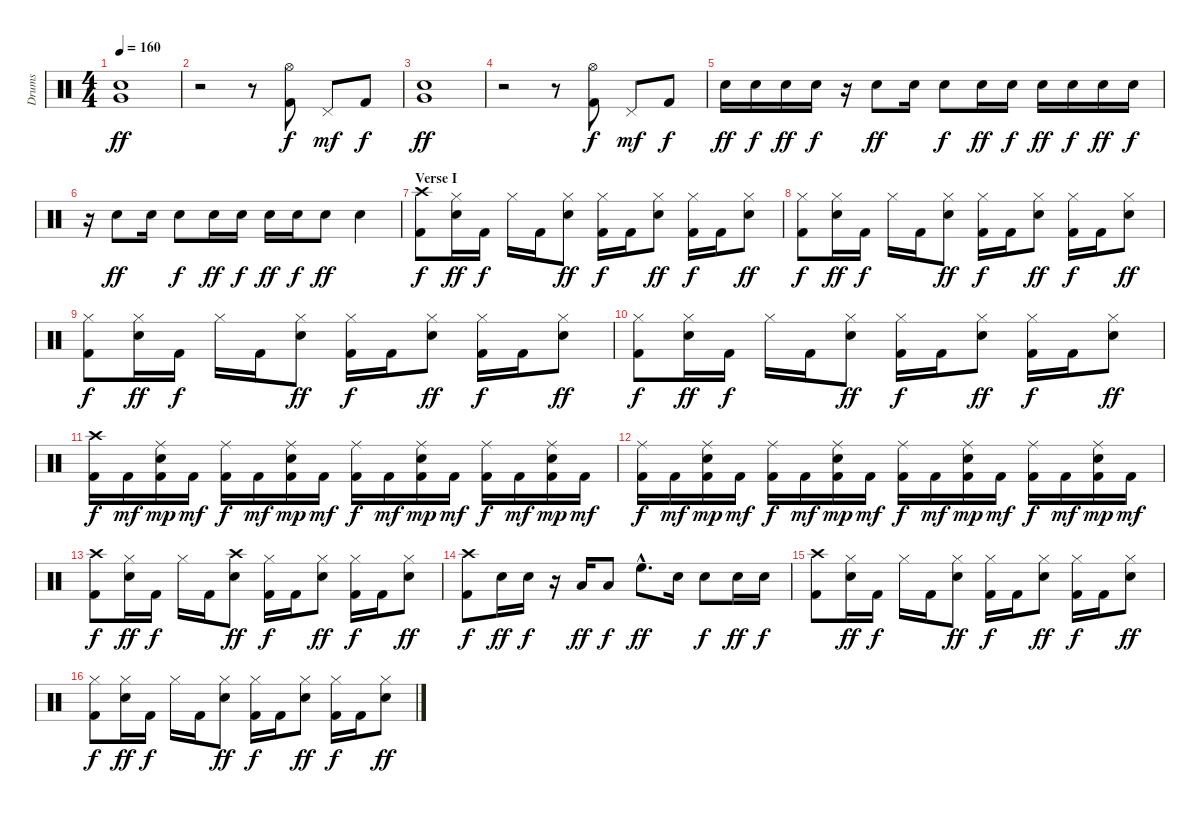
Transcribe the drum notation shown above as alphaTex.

\track ("Drums" "Drums") {instrument percussion}
\staff {score}
\articulation defaults
\ts (4 4)
\tempo 160
\clef neutral
\ks c
("Very Low Tom (hit)" "Snare (hit) 2").1{dy ff} |
r.2 r.8 ("Hi-Hat (open)" "Kick (hit) 2").8{dy f} "Pedal Hi-Hat (hit)".8{dy mf} "Kick (hit) 2".8{dy f} |
("Very Low Tom (hit)" "Snare (hit) 2").1{dy ff} |
r.2 r.8 ("Hi-Hat (open)" "Kick (hit) 2").8{dy f} "Pedal Hi-Hat (hit)".8{dy mf} "Kick (hit) 2".8{dy f} |
"Snare (hit) 2".16{dy ff} "Snare (hit) 2".16{dy f} "Snare (hit) 2".16{dy ff} "Snare (hit) 2".16{dy f} r.16 "Snare (hit) 2".8{dy ff} "Snare (hit) 2".16 "Snare (hit) 2".8{dy f} "Snare (hit) 2".16{dy ff} "Snare (hit) 2".16{dy f} "Snare (hit) 2".16{dy ff} "Snare (hit) 2".16{dy f} "Snare (hit) 2".16{dy ff} "Snare (hit) 2".16{dy f} |
r.16 "Snare (hit) 2".8{dy ff} "Snare (hit) 2".16 "Snare (hit) 2".8{dy f} "Snare (hit) 2".16{dy ff} "Snare (hit) 2".16{dy f} "Snare (hit) 2".16{dy ff} "Snare (hit) 2".16{dy f} "Snare (hit) 2".8{dy ff} "Snare (hit) 2".4 |
\section ("" "Verse I")
("Crash high (hit)" "Kick (hit) 2").8{dy f} ("Hi-Hat (closed)" "Snare (hit) 2").16{dy ff} "Kick (hit) 2".16{dy f} "Hi-Hat (closed)".16 "Kick (hit) 2".16 ("Hi-Hat (closed)" "Snare (hit) 2").8{dy ff} ("Hi-Hat (closed)" "Kick (hit) 2").16{dy f} "Kick (hit) 2".16 ("Hi-Hat (closed)" "Snare (hit) 2").8{dy ff} ("Hi-Hat (closed)" "Kick (hit) 2").16{dy f} "Kick (hit) 2".16 ("Hi-Hat (closed)" "Snare (hit) 2").8{dy ff} |
("Hi-Hat (closed)" "Kick (hit) 2").8{dy f} ("Hi-Hat (closed)" "Snare (hit) 2").16{dy ff} "Kick (hit) 2".16{dy f} "Hi-Hat (closed)".16 "Kick (hit) 2".16 ("Hi-Hat (closed)" "Snare (hit) 2").8{dy ff} ("Hi-Hat (closed)" "Kick (hit) 2").16{dy f} "Kick (hit) 2".16 ("Hi-Hat (closed)" "Snare (hit) 2").8{dy ff} ("Hi-Hat (closed)" "Kick (hit) 2").16{dy f} "Kick (hit) 2".16 ("Hi-Hat (closed)" "Snare (hit) 2").8{dy ff} |
("Hi-Hat (closed)" "Kick (hit) 2").8{dy f} ("Hi-Hat (closed)" "Snare (hit) 2").16{dy ff} "Kick (hit) 2".16{dy f} "Hi-Hat (closed)".16 "Kick (hit) 2".16 ("Hi-Hat (closed)" "Snare (hit) 2").8{dy ff} ("Hi-Hat (closed)" "Kick (hit) 2").16{dy f} "Kick (hit) 2".16 ("Hi-Hat (closed)" "Snare (hit) 2").8{dy ff} ("Hi-Hat (closed)" "Kick (hit) 2").16{dy f} "Kick (hit) 2".16 ("Hi-Hat (closed)" "Snare (hit) 2").8{dy ff} |
("Hi-Hat (closed)" "Kick (hit) 2").8{dy f} ("Hi-Hat (closed)" "Snare (hit) 2").16{dy ff} "Kick (hit) 2".16{dy f} "Hi-Hat (closed)".16 "Kick (hit) 2".16 ("Hi-Hat (closed)" "Snare (hit) 2").8{dy ff} ("Hi-Hat (closed)" "Kick (hit) 2").16{dy f} "Kick (hit) 2".16 ("Hi-Hat (closed)" "Snare (hit) 2").8{dy ff} ("Hi-Hat (closed)" "Kick (hit) 2").16{dy f} "Kick (hit) 2".16 ("Hi-Hat (closed)" "Snare (hit) 2").8{dy ff} |
("Crash high (hit)" "Kick (hit) 2").16{dy f} "Kick (hit) 2".16{dy mf} ("Snare (hit) 2" "Ride (middle)" "Kick (hit) 2").16{dy mp} "Kick (hit) 2".16{dy mf} ("Ride (middle)" "Kick (hit) 2").16{dy f} "Kick (hit) 2".16{dy mf} ("Snare (hit) 2" "Ride (middle)" "Kick (hit) 2").16{dy mp} "Kick (hit) 2".16{dy mf} ("Ride (middle)" "Kick (hit) 2").16{dy f} "Kick (hit) 2".16{dy mf} ("Snare (hit) 2" "Ride (middle)" "Kick (hit) 2").16{dy mp} "Kick (hit) 2".16{dy mf} ("Ride (middle)" "Kick (hit) 2").16{dy f} "Kick (hit) 2".16{dy mf} ("Snare (hit) 2" "Ride (middle)" "Kick (hit) 2").16{dy mp} "Kick (hit) 2".16{dy mf} |
("Ride (middle)" "Kick (hit) 2").16{dy f} "Kick (hit) 2".16{dy mf} ("Snare (hit) 2" "Ride (middle)" "Kick (hit) 2").16{dy mp} "Kick (hit) 2".16{dy mf} ("Ride (middle)" "Kick (hit) 2").16{dy f} "Kick (hit) 2".16{dy mf} ("Snare (hit) 2" "Ride (middle)" "Kick (hit) 2").16{dy mp} "Kick (hit) 2".16{dy mf} ("Ride (middle)" "Kick (hit) 2").16{dy f} "Kick (hit) 2".16{dy mf} ("Snare (hit) 2" "Ride (middle)" "Kick (hit) 2").16{dy mp} "Kick (hit) 2".16{dy mf} ("Ride (middle)" "Kick (hit) 2").16{dy f} "Kick (hit) 2".16{dy mf} ("Snare (hit) 2" "Ride (middle)" "Kick (hit) 2").16{dy mp} "Kick (hit) 2".16{dy mf} |
("Crash high (hit)" "Kick (hit) 2").8{dy f} ("Hi-Hat (closed)" "Snare (hit) 2").16{dy ff} "Kick (hit) 2".16{dy f} "Hi-Hat (closed)".16 "Kick (hit) 2".16 ("Crash high (hit)" "Snare (hit) 2").8{dy ff} ("Hi-Hat (closed)" "Kick (hit) 2").16{dy f} "Kick (hit) 2".16 ("Hi-Hat (closed)" "Snare (hit) 2").8{dy ff} ("Hi-Hat (closed)" "Kick (hit) 2").16{dy f} "Kick (hit) 2".16 ("Hi-Hat (closed)" "Snare (hit) 2").8{dy ff} |
("Crash high (hit)" "Kick (hit) 2").8{dy f} "Snare (hit) 2".16{dy ff} "Snare (hit) 2".16{dy f} r.16 "Low Floor Tom (hit)".16{dy ff} "Low Floor Tom (hit)".8{dy f} "High Floor Tom (hit)"{hac}.8{d dy ff} "Snare (hit) 2".16 "Snare (hit) 2".8{dy f} "Snare (hit) 2".16{dy ff} "Snare (hit) 2".16{dy f} |
("Crash high (hit)" "Kick (hit) 2").8 ("Hi-Hat (closed)" "Snare (hit) 2").16{dy ff} "Kick (hit) 2".16{dy f} "Hi-Hat (closed)".16 "Kick (hit) 2".16 ("Hi-Hat (closed)" "Snare (hit) 2").8{dy ff} ("Hi-Hat (closed)" "Kick (hit) 2").16{dy f} "Kick (hit) 2".16 ("Hi-Hat (closed)" "Snare (hit) 2").8{dy ff} ("Hi-Hat (closed)" "Kick (hit) 2").16{dy f} "Kick (hit) 2".16 ("Hi-Hat (closed)" "Snare (hit) 2").8{dy ff} |
("Hi-Hat (closed)" "Kick (hit) 2").8{dy f} ("Hi-Hat (closed)" "Snare (hit) 2").16{dy ff} "Kick (hit) 2".16{dy f} "Hi-Hat (closed)".16 "Kick (hit) 2".16 ("Hi-Hat (closed)" "Snare (hit) 2").8{dy ff} ("Hi-Hat (closed)" "Kick (hit) 2").16{dy f} "Kick (hit) 2".16 ("Hi-Hat (closed)" "Snare (hit) 2").8{dy ff} ("Hi-Hat (closed)" "Kick (hit) 2").16{dy f} "Kick (hit) 2".16 ("Hi-Hat (closed)" "Snare (hit) 2").8{dy ff}
